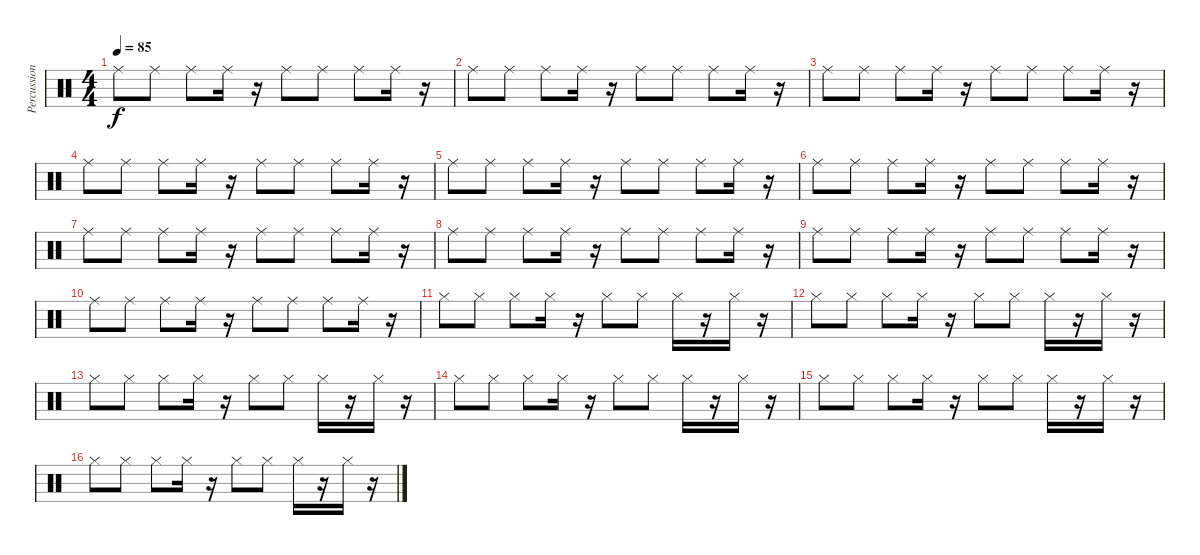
\track ("Percussion" "Percussion") {instrument percussion}
\staff {score}
\articulation defaults
\ts (4 4)
\tempo 85
\clef neutral
\ks c "Ride (middle)".8{dy f} "Ride (middle)".8 "Ride (middle)".8 "Ride (middle)".16
r.16 "Ride (middle)".8 "Ride (middle)".8 "Ride (middle)".8 "Ride (middle)".16 r.16 |
"Ride (middle)".8 "Ride (middle)".8 "Ride (middle)".8 "Ride (middle)".16 r.16 "Ride (middle)".8 "Ride (middle)".8 "Ride (middle)".8 "Ride (middle)".16 r.16 |
"Ride (middle)".8 "Ride (middle)".8 "Ride (middle)".8 "Ride (middle)".16 r.16 "Ride (middle)".8 "Ride (middle)".8 "Ride (middle)".8 "Ride (middle)".16 r.16 |
"Ride (middle)".8 "Ride (middle)".8 "Ride (middle)".8 "Ride (middle)".16 r.16 "Ride (middle)".8 "Ride (middle)".8 "Ride (middle)".8 "Ride (middle)".16 r.16 |
"Ride (middle)".8 "Ride (middle)".8 "Ride (middle)".8 "Ride (middle)".16 r.16 "Ride (middle)".8 "Ride (middle)".8 "Ride (middle)".8 "Ride (middle)".16 r.16 |
"Ride (middle)".8 "Ride (middle)".8 "Ride (middle)".8 "Ride (middle)".16 r.16 "Ride (middle)".8 "Ride (middle)".8 "Ride (middle)".8 "Ride (middle)".16 r.16 |
"Ride (middle)".8 "Ride (middle)".8 "Ride (middle)".8 "Ride (middle)".16 r.16 "Ride (middle)".8 "Ride (middle)".8 "Ride (middle)".8 "Ride (middle)".16 r.16 |
"Ride (middle)".8 "Ride (middle)".8 "Ride (middle)".8 "Ride (middle)".16 r.16 "Ride (middle)".8 "Ride (middle)".8 "Ride (middle)".8 "Ride (middle)".16 r.16 |
"Ride (middle)".8 "Ride (middle)".8 "Ride (middle)".8 "Ride (middle)".16 r.16 "Ride (middle)".8 "Ride (middle)".8 "Ride (middle)".8 "Ride (middle)".16 r.16 |
"Ride (middle)".8 "Ride (middle)".8 "Ride (middle)".8 "Ride (middle)".16 r.16 "Ride (middle)".8 "Ride (middle)".8 "Ride (middle)".8 "Ride (middle)".16 r.16 |
"Hi-Hat (closed)".8 "Hi-Hat (closed)".8 "Hi-Hat (closed)".8 "Hi-Hat (closed)".16 r.16 "Hi-Hat (closed)".8 "Hi-Hat (closed)".8 "Hi-Hat (closed)".16 r.16 "Hi-Hat (closed)".16 r.16 |
"Hi-Hat (closed)".8 "Hi-Hat (closed)".8 "Hi-Hat (closed)".8 "Hi-Hat (closed)".16 r.16 "Hi-Hat (closed)".8 "Hi-Hat (closed)".8 "Hi-Hat (closed)".16 r.16 "Hi-Hat (closed)".16 r.16 |
"Hi-Hat (closed)".8 "Hi-Hat (closed)".8 "Hi-Hat (closed)".8 "Hi-Hat (closed)".16 r.16 "Hi-Hat (closed)".8 "Hi-Hat (closed)".8 "Hi-Hat (closed)".16 r.16 "Hi-Hat (closed)".16 r.16 |
"Hi-Hat (closed)".8 "Hi-Hat (closed)".8 "Hi-Hat (closed)".8 "Hi-Hat (closed)".16 r.16 "Hi-Hat (closed)".8 "Hi-Hat (closed)".8 "Hi-Hat (closed)".16 r.16 "Hi-Hat (closed)".16 r.16 |
"Hi-Hat (closed)".8 "Hi-Hat (closed)".8 "Hi-Hat (closed)".8 "Hi-Hat (closed)".16 r.16 "Hi-Hat (closed)".8 "Hi-Hat (closed)".8 "Hi-Hat (closed)".16 r.16 "Hi-Hat (closed)".16 r.16 |
"Hi-Hat (closed)".8 "Hi-Hat (closed)".8 "Hi-Hat (closed)".8 "Hi-Hat (closed)".16 r.16 "Hi-Hat (closed)".8 "Hi-Hat (closed)".8 "Hi-Hat (closed)".16 r.16 "Hi-Hat (closed)".16 r.16
